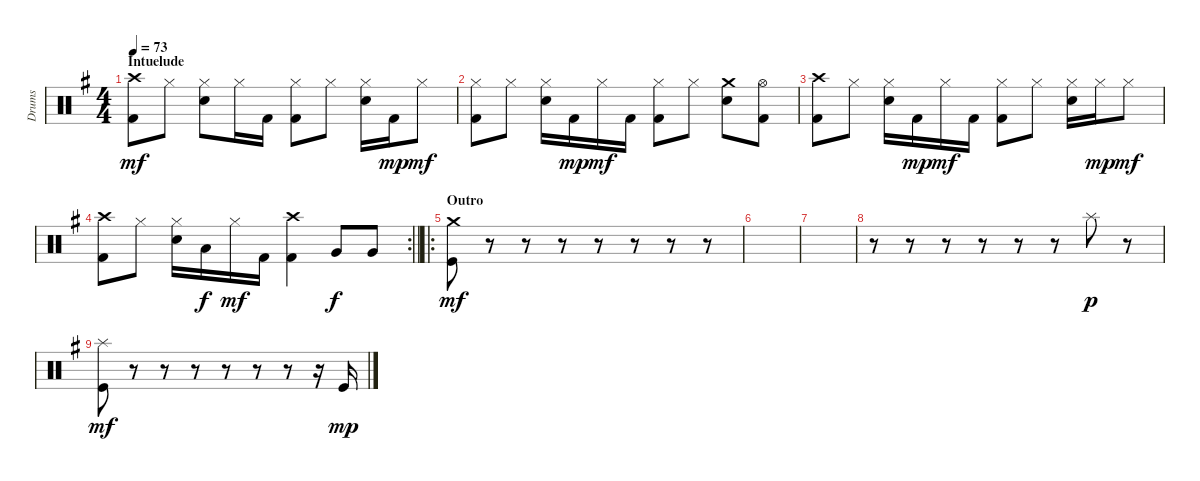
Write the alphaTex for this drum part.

\track ("Drums" "Drums") {instrument percussion}
\staff {score}
\articulation defaults
\ts (4 4)
\section ("" "Intuelude")
\tempo 73
\clef neutral
\ks g
("Crash high (hit)" "Kick (hit) 2").8{dy mf} "Hi-Hat (closed)".8 ("Hi-Hat (closed)" "Electric Snare (hit)").8 "Hi-Hat (closed)".16 "Kick (hit) 2".16 ("Hi-Hat (closed)" "Kick (hit) 2").8 "Hi-Hat (closed)".8 ("Hi-Hat (closed)" "Electric Snare (hit)").16 "Kick (hit) 2".16{dy mp} "Hi-Hat (closed)".8{dy mf} |
("Hi-Hat (closed)" "Kick (hit) 2").8 "Hi-Hat (closed)".8 ("Hi-Hat (closed)" "Electric Snare (hit)").16 "Kick (hit) 2".16{dy mp} "Hi-Hat (closed)".16{dy mf} "Kick (hit) 2".16 ("Hi-Hat (closed)" "Kick (hit) 2").8 "Hi-Hat (closed)".8 ("Crash medium (hit)" "Electric Snare (hit)").8 ("Hi-Hat (open)" "Kick (hit) 2").8 |
("Crash high (hit)" "Kick (hit) 2").8 "Hi-Hat (closed)".8 ("Hi-Hat (closed)" "Electric Snare (hit)").16 "Kick (hit) 2".16{dy mp} "Hi-Hat (closed)".16{dy mf} "Kick (hit) 2".16 ("Hi-Hat (closed)" "Kick (hit) 2").8 "Hi-Hat (closed)".8 ("Hi-Hat (closed)" "Electric Snare (hit)").16 "Hi-Hat (closed)".16{dy mp} "Hi-Hat (closed)".8{dy mf} |
\rc 2
\barLineRight lightlight
("Crash high (hit)" "Kick (hit) 2").8 "Hi-Hat (closed)".8 ("Hi-Hat (closed)" "Electric Snare (hit)").16 "Low Tom (hit)".16{dy f} "Hi-Hat (closed)".16{dy mf} "Kick (hit) 2".16 ("Crash high (hit)" "Kick (hit) 2").4 "Very Low Tom (hit)".8{dy f} "Very Low Tom (hit)".8 |
\ro
\section ("" "Outro")
("Crash medium (hit)" "Kick (hit)").8{dy mf} r.8 r.8 r.8 r.8 r.8 r.8 r.8 |
|
|
r.8 r.8 r.8 r.8 r.8 r.8 "Splash (hit)".8{dy p} r.8 |
("Splash (hit)" "Kick (hit)").8{dy mf} r.8 r.8 r.8 r.8 r.8 r.8 r.16 "Kick (hit)".16{dy mp}
